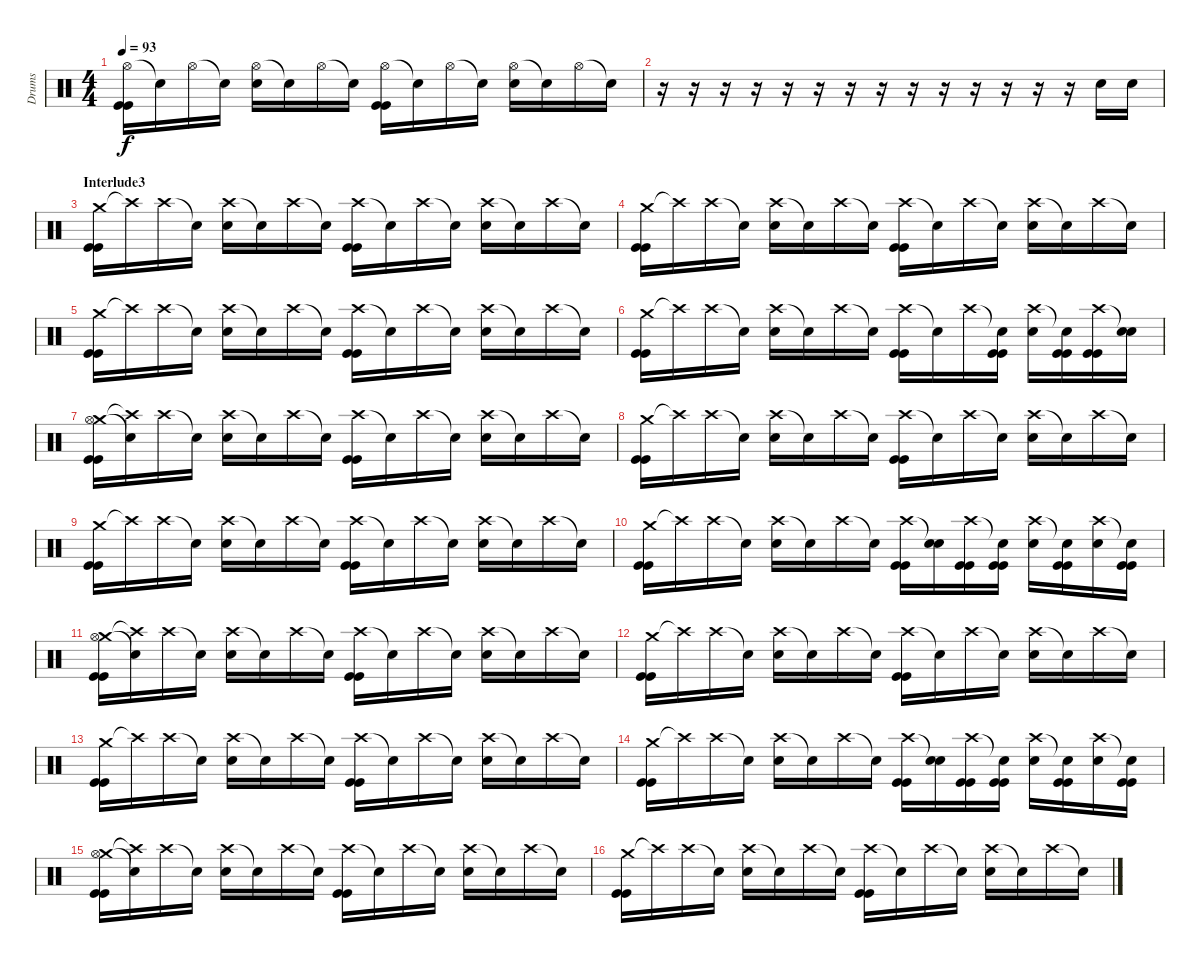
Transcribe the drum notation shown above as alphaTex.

\track ("Drums " "Drums ") {instrument percussion}
\staff {score}
\articulation defaults
\ts (4 4)
\tempo 93
\clef neutral
\ks c
("Hi-Hat (open)" "Kick (hit)" "Kick (hit)").16{dy f} "Snare (hit)"{t}.16 "Hi-Hat (open)".16 "Snare (hit)"{t}.16 ("Hi-Hat (open)" "Snare (hit) 2").16 "Snare (hit)"{t}.16 "Hi-Hat (open)".16 "Snare (hit)"{t}.16 ("Hi-Hat (open)" "Kick (hit)" "Kick (hit)").16 "Snare (hit)"{t}.16 "Hi-Hat (open)".16 "Snare (hit)"{t}.16 ("Hi-Hat (open)" "Snare (hit) 2").16 "Snare (hit)"{t}.16 "Hi-Hat (open)".16 "Snare (hit)"{t}.16 |
r.16 r.16 r.16 r.16 r.16 r.16 r.16 r.16 r.16 r.16 r.16 r.16 r.16 r.16 "Snare (hit) 2".16 "Snare (hit) 2".16 |
\section ("" "Interlude3")
("Crash medium (hit)" "Kick (hit)" "Kick (hit)").16 "Crash high (hit)"{t}.16 "Crash high (hit)".16 "Snare (hit)"{t}.16 ("Crash high (hit)" "Snare (hit) 2").16 "Snare (hit)"{t}.16 "Crash high (hit)".16 "Snare (hit)"{t}.16 ("Crash high (hit)" "Kick (hit)" "Kick (hit)").16 "Snare (hit)"{t}.16 "Crash high (hit)".16 "Snare (hit)"{t}.16 ("Crash high (hit)" "Snare (hit) 2").16 "Snare (hit)"{t}.16 "Crash high (hit)".16 "Snare (hit)"{t}.16 |
("Crash medium (hit)" "Kick (hit)" "Kick (hit)").16 "Crash high (hit)"{t}.16 "Crash high (hit)".16 "Snare (hit)"{t}.16 ("Crash high (hit)" "Snare (hit) 2").16 "Snare (hit)"{t}.16 "Crash high (hit)".16 "Snare (hit)"{t}.16 ("Crash high (hit)" "Kick (hit)" "Kick (hit)").16 "Snare (hit)"{t}.16 "Crash high (hit)".16 "Snare (hit)"{t}.16 ("Crash high (hit)" "Snare (hit) 2").16 "Snare (hit)"{t}.16 "Crash high (hit)".16 "Snare (hit)"{t}.16 |
("Crash medium (hit)" "Kick (hit)" "Kick (hit)").16 "Crash high (hit)"{t}.16 "Crash high (hit)".16 "Snare (hit)"{t}.16 ("Crash high (hit)" "Snare (hit) 2").16 "Snare (hit)"{t}.16 "Crash high (hit)".16 "Snare (hit)"{t}.16 ("Crash high (hit)" "Kick (hit)" "Kick (hit)").16 "Snare (hit)"{t}.16 "Crash high (hit)".16 "Snare (hit)"{t}.16 ("Crash high (hit)" "Snare (hit) 2").16 "Snare (hit)"{t}.16 "Crash high (hit)".16 "Snare (hit)"{t}.16 |
("Crash medium (hit)" "Kick (hit)" "Kick (hit)").16 "Crash high (hit)"{t}.16 "Crash high (hit)".16 "Snare (hit)"{t}.16 ("Crash high (hit)" "Snare (hit) 2").16 "Snare (hit)"{t}.16 "Crash high (hit)".16 "Snare (hit)"{t}.16 ("Crash high (hit)" "Kick (hit)" "Kick (hit)").16 "Snare (hit)"{t}.16 "Crash high (hit)".16 ("Snare (hit)"{t} "Kick (hit)" "Kick (hit)").16 ("Crash high (hit)" "Snare (hit) 2").16 ("Snare (hit)"{t} "Kick (hit)" "Kick (hit)").16 ("Crash high (hit)" "Kick (hit)" "Kick (hit)").16 ("Snare (hit)"{t} "Snare (hit) 2").16 |
("Crash medium (hit)" "Hi-Hat (open)" "Kick (hit)" "Kick (hit)").16 ("Crash high (hit)"{t} "Snare (hit)"{t}).16 "Crash high (hit)".16 "Snare (hit)"{t}.16 ("Crash high (hit)" "Snare (hit) 2").16 "Snare (hit)"{t}.16 "Crash high (hit)".16 "Snare (hit)"{t}.16 ("Crash high (hit)" "Kick (hit)" "Kick (hit)").16 "Snare (hit)"{t}.16 "Crash high (hit)".16 "Snare (hit)"{t}.16 ("Crash high (hit)" "Snare (hit) 2").16 "Snare (hit)"{t}.16 "Crash high (hit)".16 "Snare (hit)"{t}.16 |
("Crash medium (hit)" "Kick (hit)" "Kick (hit)").16 "Crash high (hit)"{t}.16 "Crash high (hit)".16 "Snare (hit)"{t}.16 ("Crash high (hit)" "Snare (hit) 2").16 "Snare (hit)"{t}.16 "Crash high (hit)".16 "Snare (hit)"{t}.16 ("Crash high (hit)" "Kick (hit)" "Kick (hit)").16 "Snare (hit)"{t}.16 "Crash high (hit)".16 "Snare (hit)"{t}.16 ("Crash high (hit)" "Snare (hit) 2").16 "Snare (hit)"{t}.16 "Crash high (hit)".16 "Snare (hit)"{t}.16 |
("Crash medium (hit)" "Kick (hit)" "Kick (hit)").16 "Crash high (hit)"{t}.16 "Crash high (hit)".16 "Snare (hit)"{t}.16 ("Crash high (hit)" "Snare (hit) 2").16 "Snare (hit)"{t}.16 "Crash high (hit)".16 "Snare (hit)"{t}.16 ("Crash high (hit)" "Kick (hit)" "Kick (hit)").16 "Snare (hit)"{t}.16 "Crash high (hit)".16 "Snare (hit)"{t}.16 ("Crash high (hit)" "Snare (hit) 2").16 "Snare (hit)"{t}.16 "Crash high (hit)".16 "Snare (hit)"{t}.16 |
("Crash medium (hit)" "Kick (hit)" "Kick (hit)").16 "Crash high (hit)"{t}.16 "Crash high (hit)".16 "Snare (hit)"{t}.16 ("Crash high (hit)" "Snare (hit) 2").16 "Snare (hit)"{t}.16 "Crash high (hit)".16 "Snare (hit)"{t}.16 ("Crash high (hit)" "Kick (hit)" "Kick (hit)").16 ("Snare (hit)"{t} "Snare (hit) 2").16 ("Crash high (hit)" "Kick (hit)" "Kick (hit)").16 ("Snare (hit)"{t} "Kick (hit)" "Kick (hit)").16 ("Crash high (hit)" "Snare (hit) 2").16 ("Snare (hit)"{t} "Kick (hit)" "Kick (hit)").16 ("Crash high (hit)" "Snare (hit) 2").16 ("Snare (hit)"{t} "Kick (hit)" "Kick (hit)").16 |
("Crash medium (hit)" "Hi-Hat (open)" "Kick (hit)" "Kick (hit)").16 ("Crash high (hit)"{t} "Snare (hit)"{t}).16 "Crash high (hit)".16 "Snare (hit)"{t}.16 ("Crash high (hit)" "Snare (hit) 2").16 "Snare (hit)"{t}.16 "Crash high (hit)".16 "Snare (hit)"{t}.16 ("Crash high (hit)" "Kick (hit)" "Kick (hit)").16 "Snare (hit)"{t}.16 "Crash high (hit)".16 "Snare (hit)"{t}.16 ("Crash high (hit)" "Snare (hit) 2").16 "Snare (hit)"{t}.16 "Crash high (hit)".16 "Snare (hit)"{t}.16 |
("Crash medium (hit)" "Kick (hit)" "Kick (hit)").16 "Crash high (hit)"{t}.16 "Crash high (hit)".16 "Snare (hit)"{t}.16 ("Crash high (hit)" "Snare (hit) 2").16 "Snare (hit)"{t}.16 "Crash high (hit)".16 "Snare (hit)"{t}.16 ("Crash high (hit)" "Kick (hit)" "Kick (hit)").16 "Snare (hit)"{t}.16 "Crash high (hit)".16 "Snare (hit)"{t}.16 ("Crash high (hit)" "Snare (hit) 2").16 "Snare (hit)"{t}.16 "Crash high (hit)".16 "Snare (hit)"{t}.16 |
("Crash medium (hit)" "Kick (hit)" "Kick (hit)").16 "Crash high (hit)"{t}.16 "Crash high (hit)".16 "Snare (hit)"{t}.16 ("Crash high (hit)" "Snare (hit) 2").16 "Snare (hit)"{t}.16 "Crash high (hit)".16 "Snare (hit)"{t}.16 ("Crash high (hit)" "Kick (hit)" "Kick (hit)").16 "Snare (hit)"{t}.16 "Crash high (hit)".16 "Snare (hit)"{t}.16 ("Crash high (hit)" "Snare (hit) 2").16 "Snare (hit)"{t}.16 "Crash high (hit)".16 "Snare (hit)"{t}.16 |
("Crash medium (hit)" "Kick (hit)" "Kick (hit)").16 "Crash high (hit)"{t}.16 "Crash high (hit)".16 "Snare (hit)"{t}.16 ("Crash high (hit)" "Snare (hit) 2").16 "Snare (hit)"{t}.16 "Crash high (hit)".16 "Snare (hit)"{t}.16 ("Crash high (hit)" "Kick (hit)" "Kick (hit)").16 ("Snare (hit)"{t} "Snare (hit) 2").16 ("Crash high (hit)" "Kick (hit)" "Kick (hit)").16 ("Snare (hit)"{t} "Kick (hit)" "Kick (hit)").16 ("Crash high (hit)" "Snare (hit) 2").16 ("Snare (hit)"{t} "Kick (hit)" "Kick (hit)").16 ("Crash high (hit)" "Snare (hit) 2").16 ("Snare (hit)"{t} "Kick (hit)" "Kick (hit)").16 |
("Crash medium (hit)" "Hi-Hat (open)" "Kick (hit)" "Kick (hit)").16 ("Crash high (hit)"{t} "Snare (hit)"{t}).16 "Crash high (hit)".16 "Snare (hit)"{t}.16 ("Crash high (hit)" "Snare (hit) 2").16 "Snare (hit)"{t}.16 "Crash high (hit)".16 "Snare (hit)"{t}.16 ("Crash high (hit)" "Kick (hit)" "Kick (hit)").16 "Snare (hit)"{t}.16 "Crash high (hit)".16 "Snare (hit)"{t}.16 ("Crash high (hit)" "Snare (hit) 2").16 "Snare (hit)"{t}.16 "Crash high (hit)".16 "Snare (hit)"{t}.16 |
("Crash medium (hit)" "Kick (hit)" "Kick (hit)").16 "Crash high (hit)"{t}.16 "Crash high (hit)".16 "Snare (hit)"{t}.16 ("Crash high (hit)" "Snare (hit) 2").16 "Snare (hit)"{t}.16 "Crash high (hit)".16 "Snare (hit)"{t}.16 ("Crash high (hit)" "Kick (hit)" "Kick (hit)").16 "Snare (hit)"{t}.16 "Crash high (hit)".16 "Snare (hit)"{t}.16 ("Crash high (hit)" "Snare (hit) 2").16 "Snare (hit)"{t}.16 "Crash high (hit)".16 "Snare (hit)"{t}.16
